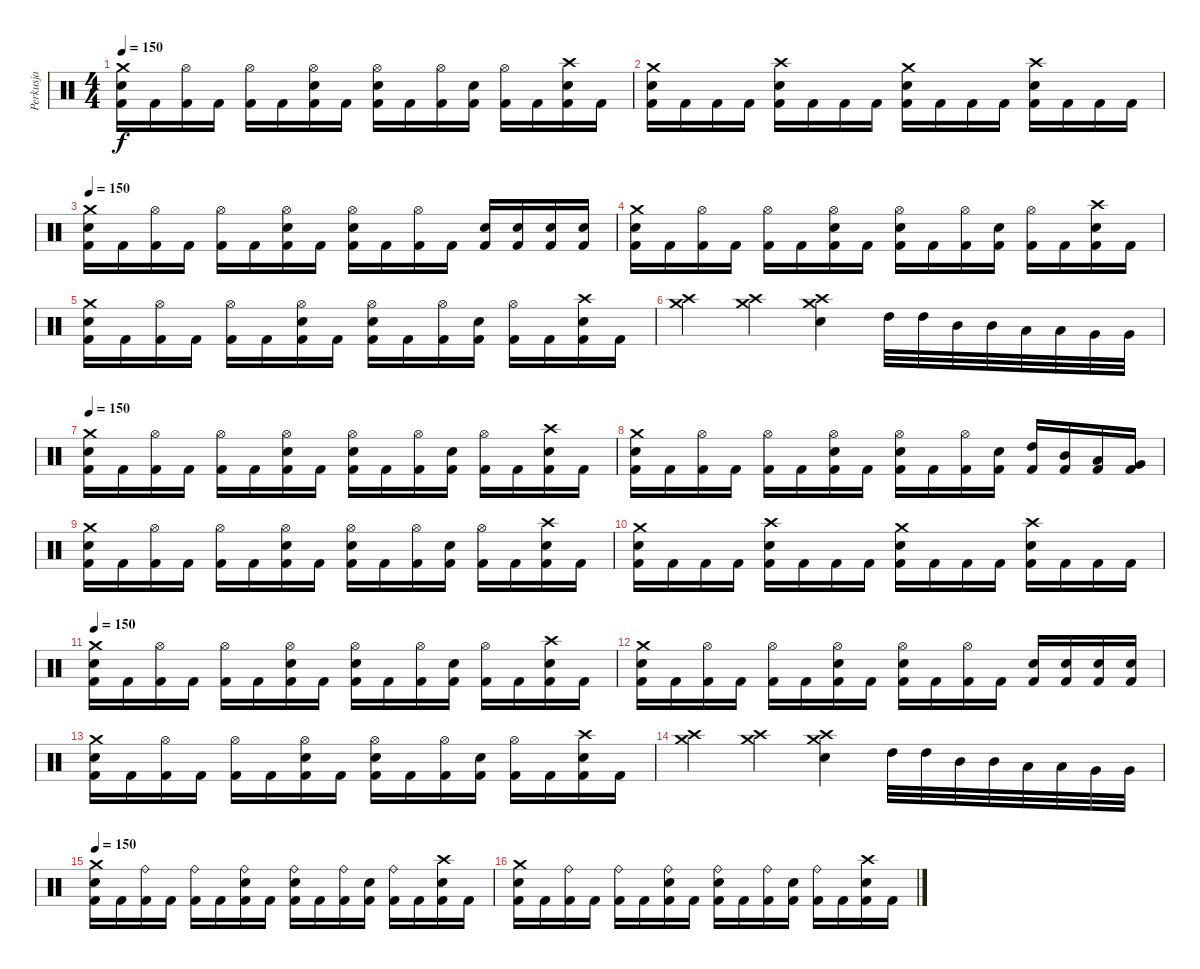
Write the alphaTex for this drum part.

\track ("Perkusja" "Perkusja") {instrument percussion}
\staff {score}
\articulation defaults
\ts (4 4)
\tempo 150
\clef neutral
\ks c
("Crash medium (hit)" "Electric Snare (hit)" "Kick (hit) 2").16{dy f} "Kick (hit) 2".16 ("Hi-Hat (open)" "Kick (hit) 2").16 "Kick (hit) 2".16 ("Hi-Hat (open)" "Kick (hit) 2").16 "Kick (hit) 2".16 ("Hi-Hat (open)" "Electric Snare (hit)" "Kick (hit) 2").16 "Kick (hit) 2".16 ("Hi-Hat (open)" "Electric Snare (hit)" "Kick (hit) 2").16 "Kick (hit) 2".16 ("Hi-Hat (open)" "Kick (hit) 2").16 ("Electric Snare (hit)" "Kick (hit) 2").16 ("Hi-Hat (open)" "Kick (hit) 2").16 "Kick (hit) 2".16 ("Crash high (hit)" "Electric Snare (hit)" "Kick (hit) 2").16 "Kick (hit) 2".16 |
("Crash medium (hit)" "Electric Snare (hit)" "Kick (hit) 2").16 "Kick (hit) 2".16 "Kick (hit) 2".16 "Kick (hit) 2".16 ("Crash high (hit)" "Electric Snare (hit)" "Kick (hit) 2").16 "Kick (hit) 2".16 "Kick (hit) 2".16 "Kick (hit) 2".16 ("Crash medium (hit)" "Electric Snare (hit)" "Kick (hit) 2").16 "Kick (hit) 2".16 "Kick (hit) 2".16 "Kick (hit) 2".16 ("Crash high (hit)" "Electric Snare (hit)" "Kick (hit) 2").16 "Kick (hit) 2".16 "Kick (hit) 2".16 "Kick (hit) 2".16 |
\tempo 150
("Crash medium (hit)" "Electric Snare (hit)" "Kick (hit) 2").16 "Kick (hit) 2".16 ("Hi-Hat (open)" "Kick (hit) 2").16 "Kick (hit) 2".16 ("Hi-Hat (open)" "Kick (hit) 2").16 "Kick (hit) 2".16 ("Hi-Hat (open)" "Electric Snare (hit)" "Kick (hit) 2").16 "Kick (hit) 2".16 ("Hi-Hat (open)" "Electric Snare (hit)" "Kick (hit) 2").16 "Kick (hit) 2".16 ("Hi-Hat (open)" "Kick (hit) 2").16 "Kick (hit) 2".16 ("Electric Snare (hit)" "Kick (hit) 2").16 ("Electric Snare (hit)" "Kick (hit) 2").16 ("Electric Snare (hit)" "Kick (hit) 2").16 ("Electric Snare (hit)" "Kick (hit) 2").16 |
("Crash medium (hit)" "Electric Snare (hit)" "Kick (hit) 2").16 "Kick (hit) 2".16 ("Hi-Hat (open)" "Kick (hit) 2").16 "Kick (hit) 2".16 ("Hi-Hat (open)" "Kick (hit) 2").16 "Kick (hit) 2".16 ("Hi-Hat (open)" "Electric Snare (hit)" "Kick (hit) 2").16 "Kick (hit) 2".16 ("Hi-Hat (open)" "Electric Snare (hit)" "Kick (hit) 2").16 "Kick (hit) 2".16 ("Hi-Hat (open)" "Kick (hit) 2").16 ("Electric Snare (hit)" "Kick (hit) 2").16 ("Hi-Hat (open)" "Kick (hit) 2").16 "Kick (hit) 2".16 ("Crash high (hit)" "Electric Snare (hit)" "Kick (hit) 2").16 "Kick (hit) 2".16 |
("Crash medium (hit)" "Electric Snare (hit)" "Kick (hit) 2").16 "Kick (hit) 2".16 ("Hi-Hat (open)" "Kick (hit) 2").16 "Kick (hit) 2".16 ("Hi-Hat (open)" "Kick (hit) 2").16 "Kick (hit) 2".16 ("Hi-Hat (open)" "Electric Snare (hit)" "Kick (hit) 2").16 "Kick (hit) 2".16 ("Hi-Hat (open)" "Electric Snare (hit)" "Kick (hit) 2").16 "Kick (hit) 2".16 ("Hi-Hat (open)" "Kick (hit) 2").16 ("Electric Snare (hit)" "Kick (hit) 2").16 ("Hi-Hat (open)" "Kick (hit) 2").16 "Kick (hit) 2".16 ("Crash high (hit)" "Electric Snare (hit)" "Kick (hit) 2").16 "Kick (hit) 2".16 |
("Crash medium (hit)" "Crash high (hit)").4 ("Crash medium (hit)" "Crash high (hit)").4 ("Crash high (hit)" "Crash medium (hit)" "Electric Snare (hit)").4 "High Tom (hit)".32 "High Tom (hit)".32 "Mid Tom (hit)".32 "Mid Tom (hit)".32 "Low Tom (hit)".32 "Low Tom (hit)".32 "Very Low Tom (hit)".32 "Very Low Tom (hit)".32 |
\tempo 150
("Crash medium (hit)" "Electric Snare (hit)" "Kick (hit) 2").16 "Kick (hit) 2".16 ("Hi-Hat (open)" "Kick (hit) 2").16 "Kick (hit) 2".16 ("Hi-Hat (open)" "Kick (hit) 2").16 "Kick (hit) 2".16 ("Hi-Hat (open)" "Electric Snare (hit)" "Kick (hit) 2").16 "Kick (hit) 2".16 ("Hi-Hat (open)" "Electric Snare (hit)" "Kick (hit) 2").16 "Kick (hit) 2".16 ("Hi-Hat (open)" "Kick (hit) 2").16 ("Electric Snare (hit)" "Kick (hit) 2").16 ("Hi-Hat (open)" "Kick (hit) 2").16 "Kick (hit) 2".16 ("Crash high (hit)" "Electric Snare (hit)" "Kick (hit) 2").16 "Kick (hit) 2".16 |
("Crash medium (hit)" "Electric Snare (hit)" "Kick (hit) 2").16 "Kick (hit) 2".16 ("Hi-Hat (open)" "Kick (hit) 2").16 "Kick (hit) 2".16 ("Hi-Hat (open)" "Kick (hit) 2").16 "Kick (hit) 2".16 ("Hi-Hat (open)" "Electric Snare (hit)" "Kick (hit) 2").16 "Kick (hit) 2".16 ("Hi-Hat (open)" "Electric Snare (hit)" "Kick (hit) 2").16 "Kick (hit) 2".16 ("Hi-Hat (open)" "Kick (hit) 2").16 ("Electric Snare (hit)" "Kick (hit) 2").16 ("High Tom (hit)" "Kick (hit) 2").16 ("Mid Tom (hit)" "Kick (hit) 2").16 ("Low Tom (hit)" "Kick (hit) 2").16 ("Very Low Tom (hit)" "Kick (hit) 2").16 |
("Crash medium (hit)" "Electric Snare (hit)" "Kick (hit) 2").16 "Kick (hit) 2".16 ("Hi-Hat (open)" "Kick (hit) 2").16 "Kick (hit) 2".16 ("Hi-Hat (open)" "Kick (hit) 2").16 "Kick (hit) 2".16 ("Hi-Hat (open)" "Electric Snare (hit)" "Kick (hit) 2").16 "Kick (hit) 2".16 ("Hi-Hat (open)" "Electric Snare (hit)" "Kick (hit) 2").16 "Kick (hit) 2".16 ("Hi-Hat (open)" "Kick (hit) 2").16 ("Electric Snare (hit)" "Kick (hit) 2").16 ("Hi-Hat (open)" "Kick (hit) 2").16 "Kick (hit) 2".16 ("Crash high (hit)" "Electric Snare (hit)" "Kick (hit) 2").16 "Kick (hit) 2".16 |
("Crash medium (hit)" "Electric Snare (hit)" "Kick (hit) 2").16 "Kick (hit) 2".16 "Kick (hit) 2".16 "Kick (hit) 2".16 ("Crash high (hit)" "Electric Snare (hit)" "Kick (hit) 2").16 "Kick (hit) 2".16 "Kick (hit) 2".16 "Kick (hit) 2".16 ("Crash medium (hit)" "Electric Snare (hit)" "Kick (hit) 2").16 "Kick (hit) 2".16 "Kick (hit) 2".16 "Kick (hit) 2".16 ("Crash high (hit)" "Electric Snare (hit)" "Kick (hit) 2").16 "Kick (hit) 2".16 "Kick (hit) 2".16 "Kick (hit) 2".16 |
\tempo 150
("Crash medium (hit)" "Electric Snare (hit)" "Kick (hit) 2").16 "Kick (hit) 2".16 ("Hi-Hat (open)" "Kick (hit) 2").16 "Kick (hit) 2".16 ("Hi-Hat (open)" "Kick (hit) 2").16 "Kick (hit) 2".16 ("Hi-Hat (open)" "Electric Snare (hit)" "Kick (hit) 2").16 "Kick (hit) 2".16 ("Hi-Hat (open)" "Electric Snare (hit)" "Kick (hit) 2").16 "Kick (hit) 2".16 ("Hi-Hat (open)" "Kick (hit) 2").16 ("Electric Snare (hit)" "Kick (hit) 2").16 ("Hi-Hat (open)" "Kick (hit) 2").16 "Kick (hit) 2".16 ("Crash high (hit)" "Electric Snare (hit)" "Kick (hit) 2").16 "Kick (hit) 2".16 |
("Crash medium (hit)" "Electric Snare (hit)" "Kick (hit) 2").16 "Kick (hit) 2".16 ("Hi-Hat (open)" "Kick (hit) 2").16 "Kick (hit) 2".16 ("Hi-Hat (open)" "Kick (hit) 2").16 "Kick (hit) 2".16 ("Hi-Hat (open)" "Electric Snare (hit)" "Kick (hit) 2").16 "Kick (hit) 2".16 ("Hi-Hat (open)" "Electric Snare (hit)" "Kick (hit) 2").16 "Kick (hit) 2".16 ("Hi-Hat (open)" "Kick (hit) 2").16 "Kick (hit) 2".16 ("Electric Snare (hit)" "Kick (hit) 2").16 ("Electric Snare (hit)" "Kick (hit) 2").16 ("Electric Snare (hit)" "Kick (hit) 2").16 ("Electric Snare (hit)" "Kick (hit) 2").16 |
("Crash medium (hit)" "Electric Snare (hit)" "Kick (hit) 2").16 "Kick (hit) 2".16 ("Hi-Hat (open)" "Kick (hit) 2").16 "Kick (hit) 2".16 ("Hi-Hat (open)" "Kick (hit) 2").16 "Kick (hit) 2".16 ("Hi-Hat (open)" "Electric Snare (hit)" "Kick (hit) 2").16 "Kick (hit) 2".16 ("Hi-Hat (open)" "Electric Snare (hit)" "Kick (hit) 2").16 "Kick (hit) 2".16 ("Hi-Hat (open)" "Kick (hit) 2").16 ("Electric Snare (hit)" "Kick (hit) 2").16 ("Hi-Hat (open)" "Kick (hit) 2").16 "Kick (hit) 2".16 ("Crash high (hit)" "Electric Snare (hit)" "Kick (hit) 2").16 "Kick (hit) 2".16 |
("Crash medium (hit)" "Crash high (hit)").4 ("Crash medium (hit)" "Crash high (hit)").4 ("Crash high (hit)" "Crash medium (hit)" "Electric Snare (hit)").4 "High Tom (hit)".32 "High Tom (hit)".32 "Mid Tom (hit)".32 "Mid Tom (hit)".32 "Low Tom (hit)".32 "Low Tom (hit)".32 "Very Low Tom (hit)".32 "Very Low Tom (hit)".32 |
\tempo 150
("Crash medium (hit)" "Electric Snare (hit)" "Kick (hit) 2").16 "Kick (hit) 2".16 ("Ride (bell)" "Kick (hit) 2").16 "Kick (hit) 2".16 ("Ride (bell)" "Kick (hit) 2").16 "Kick (hit) 2".16 ("Ride (bell)" "Electric Snare (hit)" "Kick (hit) 2").16 "Kick (hit) 2".16 ("Ride (bell)" "Electric Snare (hit)" "Kick (hit) 2").16 "Kick (hit) 2".16 ("Ride (bell)" "Kick (hit) 2").16 ("Electric Snare (hit)" "Kick (hit) 2").16 ("Ride (bell)" "Kick (hit) 2").16 "Kick (hit) 2".16 ("Crash high (hit)" "Electric Snare (hit)" "Kick (hit) 2").16 "Kick (hit) 2".16 |
("Crash medium (hit)" "Electric Snare (hit)" "Kick (hit) 2").16 "Kick (hit) 2".16 ("Ride (bell)" "Kick (hit) 2").16 "Kick (hit) 2".16 ("Ride (bell)" "Kick (hit) 2").16 "Kick (hit) 2".16 ("Ride (bell)" "Electric Snare (hit)" "Kick (hit) 2").16 "Kick (hit) 2".16 ("Ride (bell)" "Electric Snare (hit)" "Kick (hit) 2").16 "Kick (hit) 2".16 ("Ride (bell)" "Kick (hit) 2").16 ("Electric Snare (hit)" "Kick (hit) 2").16 ("Ride (bell)" "Kick (hit) 2").16 "Kick (hit) 2".16 ("Crash high (hit)" "Electric Snare (hit)" "Kick (hit) 2").16 "Kick (hit) 2".16
